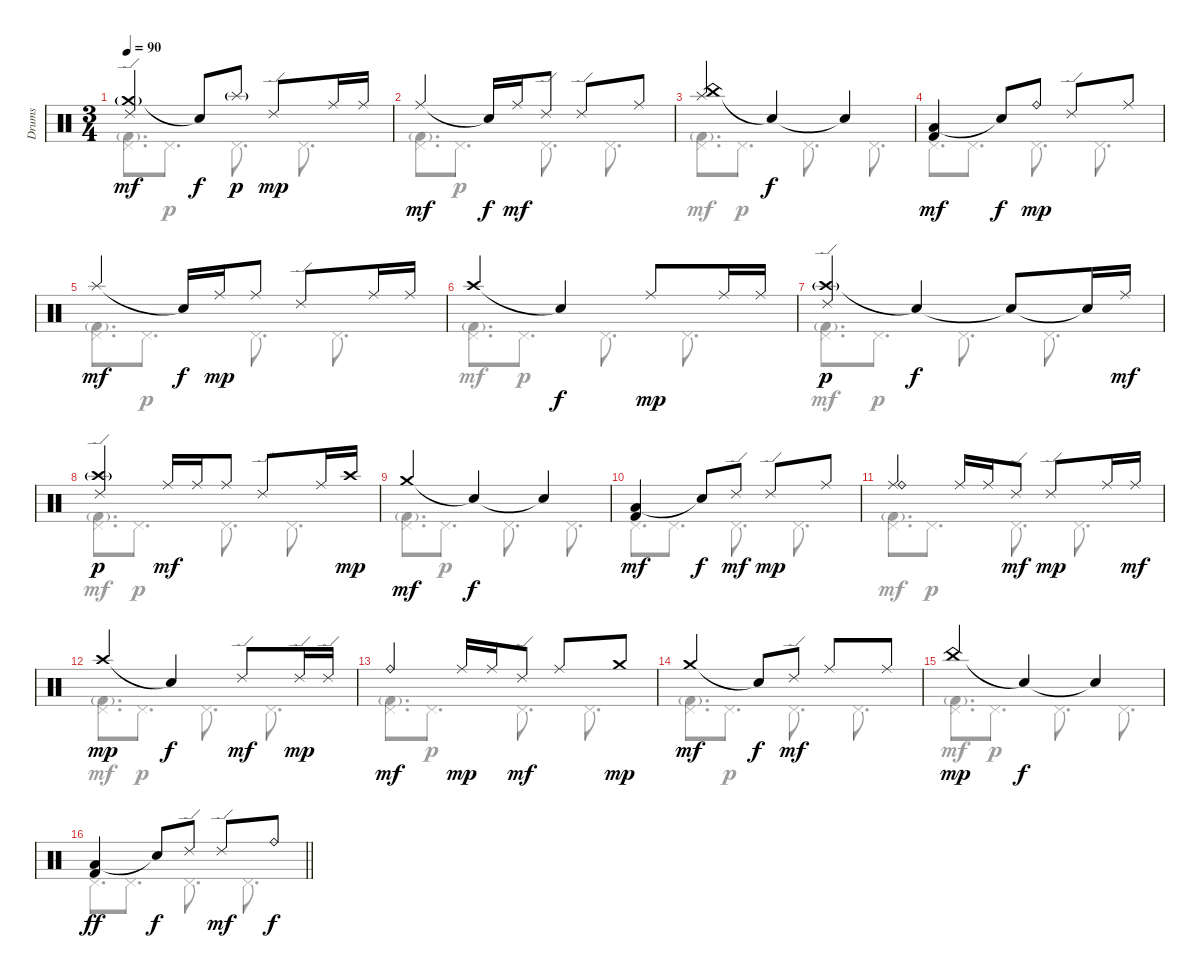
\track ("Drums" "Drums") {instrument percussion}
\staff {score}
\articulation defaults
\voice
\ts (3 4)
\tempo 90
\clef neutral
\ks c
("Crash medium (hit)"{g} "Ride (edge) 2").4{dy mf} "Snare (hit)"{t}.8{dy f} "Splash (hit)"{g}.8{dy p} "Ride (edge) 2".8{dy mp} "Ride (middle)".16 "Ride (middle)".16 |
"Ride (middle)".4{dy mf} "Snare (hit)"{t}.16{dy f} "Ride (middle)".16{dy mf} "Ride (edge) 2".8 "Ride (edge) 2".8 "Ride (middle)".8 |
("China (hit)" "Splash (hit)").4 "Snare (hit)"{t}.4{dy f} "Snare (hit)"{t}.4 |
("Low Tom (hit)" "Kick (hit) 2").4{dy mf} "Snare (hit)"{t}.8{dy f} "Ride (bell)".8{dy mp} "Ride (edge) 2".8 "Ride (middle)".8 |
"Splash (hit)".4{dy mf} "Snare (hit)"{t}.16{dy f} "Ride (middle)".16{dy mp} "Ride (middle)".8 "Ride (edge) 2".8 "Ride (middle)".16 "Ride (middle)".16 |
"Crash high (hit)".4 "Snare (hit)"{t}.4{dy f} "Ride (middle)".8{dy mp} "Ride (middle)".16 "Ride (middle)".16 |
("Crash high (hit)"{g} "Ride (edge) 2").4{dy p} "Snare (hit)"{t}.4{dy f} "Snare (hit)"{t}.8 "Snare (hit)"{t}.16 "Ride (middle)".16{dy mf} |
("Crash high (hit)"{g} "Ride (edge) 2").4{dy p} "Ride (middle)".16{dy mf} "Ride (middle)".16 "Ride (middle)".8 "Ride (edge) 2".8 "Ride (middle)".16 "Crash high (hit)".16{dy mp} |
"Crash medium (hit)".4{dy mf} "Snare (hit)"{t}.4{dy f} "Snare (hit)"{t}.4 |
("Low Tom (hit)" "Kick (hit) 2").4{dy mf} "Snare (hit)"{t}.8{dy f} "Ride (edge) 2".8{dy mf} "Ride (edge) 2".8{dy mp} "Ride (middle)".8 |
("Ride (middle)" "Ride (bell)").4 "Ride (middle)".16 "Ride (middle)".16 "Ride (edge) 2".8{dy mf} "Ride (edge) 2".8{dy mp} "Ride (middle)".16 "Ride (middle)".16{dy mf} |
"Crash high (hit)".4{dy mp} "Snare (hit)"{t}.4{dy f} "Ride (edge) 2".8{dy mf} "Ride (edge) 2".16{dy mp} "Ride (edge) 2".16 |
"Ride (bell)".4{dy mf} "Ride (middle)".16{dy mp} "Ride (middle)".16 "Ride (edge) 2".8{dy mf} "Ride (middle)".8 "Crash medium (hit)".8{dy mp} |
"Crash medium (hit)".4{dy mf} "Snare (hit)"{t}.8{dy f} "Ride (edge) 2".8{dy mf} "Ride (middle)".8 "Ride (middle)".8 |
"China (hit)".4{dy mp} "Snare (hit)"{t}.4{dy f} "Snare (hit)"{t}.4 |
\barLineRight lightlight
("Low Tom (hit)" "Kick (hit) 2").4{dy ff} "Snare (hit)"{t}.8{dy f} "Ride (edge) 2".8 "Ride (edge) 2".8{dy mf} "Ride (bell)".8{dy f}
\voice
\clef neutral
\ottava regular
\simile none
\ks c
("Pedal Hi-Hat (hit)" "Kick (hit) 2"{g}).8{d dy mf} "Pedal Hi-Hat (hit)".8{d dy p} "Pedal Hi-Hat (hit)".8{d} "Pedal Hi-Hat (hit)".8{d} |
("Pedal Hi-Hat (hit)" "Kick (hit) 2"{g}).8{d dy mf} "Pedal Hi-Hat (hit)".8{d dy p} "Pedal Hi-Hat (hit)".8{d} "Pedal Hi-Hat (hit)".8{d} |
("Pedal Hi-Hat (hit)" "Kick (hit) 2"{g}).8{d dy mf} "Pedal Hi-Hat (hit)".8{d dy p} "Pedal Hi-Hat (hit)".8{d} "Pedal Hi-Hat (hit)".8{d} |
"Pedal Hi-Hat (hit)".8{d} "Pedal Hi-Hat (hit)".8{d} "Pedal Hi-Hat (hit)".8{d} "Pedal Hi-Hat (hit)".8{d} |
("Pedal Hi-Hat (hit)" "Kick (hit) 2"{g}).8{d dy mf} "Pedal Hi-Hat (hit)".8{d dy p} "Pedal Hi-Hat (hit)".8{d} "Pedal Hi-Hat (hit)".8{d} |
("Pedal Hi-Hat (hit)" "Kick (hit) 2"{g}).8{d dy mf} "Pedal Hi-Hat (hit)".8{d dy p} "Pedal Hi-Hat (hit)".8{d} "Pedal Hi-Hat (hit)".8{d} |
("Pedal Hi-Hat (hit)" "Kick (hit) 2"{g}).8{d dy mf} "Pedal Hi-Hat (hit)".8{d dy p} "Pedal Hi-Hat (hit)".8{d} "Pedal Hi-Hat (hit)".8{d} |
("Pedal Hi-Hat (hit)" "Kick (hit) 2"{g}).8{d dy mf} "Pedal Hi-Hat (hit)".8{d dy p} "Pedal Hi-Hat (hit)".8{d} "Pedal Hi-Hat (hit)".8{d} |
("Pedal Hi-Hat (hit)" "Kick (hit) 2"{g}).8{d dy mf} "Pedal Hi-Hat (hit)".8{d dy p} "Pedal Hi-Hat (hit)".8{d} "Pedal Hi-Hat (hit)".8{d} |
"Pedal Hi-Hat (hit)".8{d} "Pedal Hi-Hat (hit)".8{d} "Pedal Hi-Hat (hit)".8{d} "Pedal Hi-Hat (hit)".8{d} |
("Pedal Hi-Hat (hit)" "Kick (hit) 2"{g}).8{d dy mf} "Pedal Hi-Hat (hit)".8{d dy p} "Pedal Hi-Hat (hit)".8{d} "Pedal Hi-Hat (hit)".8{d} |
("Pedal Hi-Hat (hit)" "Kick (hit) 2"{g}).8{d dy mf} "Pedal Hi-Hat (hit)".8{d dy p} "Pedal Hi-Hat (hit)".8{d} "Pedal Hi-Hat (hit)".8{d} |
("Pedal Hi-Hat (hit)" "Kick (hit) 2"{g}).8{d dy mf} "Pedal Hi-Hat (hit)".8{d dy p} "Pedal Hi-Hat (hit)".8{d} "Pedal Hi-Hat (hit)".8{d} |
("Pedal Hi-Hat (hit)" "Kick (hit) 2"{g}).8{d dy mf} "Pedal Hi-Hat (hit)".8{d dy p} "Pedal Hi-Hat (hit)".8{d} "Pedal Hi-Hat (hit)".8{d} |
("Pedal Hi-Hat (hit)" "Kick (hit) 2"{g}).8{d dy mf} "Pedal Hi-Hat (hit)".8{d dy p} "Pedal Hi-Hat (hit)".8{d} "Pedal Hi-Hat (hit)".8{d} |
\barLineRight lightlight "Pedal Hi-Hat (hit)".8{d} "Pedal Hi-Hat (hit)".8{d} "Pedal Hi-Hat (hit)".8{d} "Pedal Hi-Hat (hit)".8{d}
